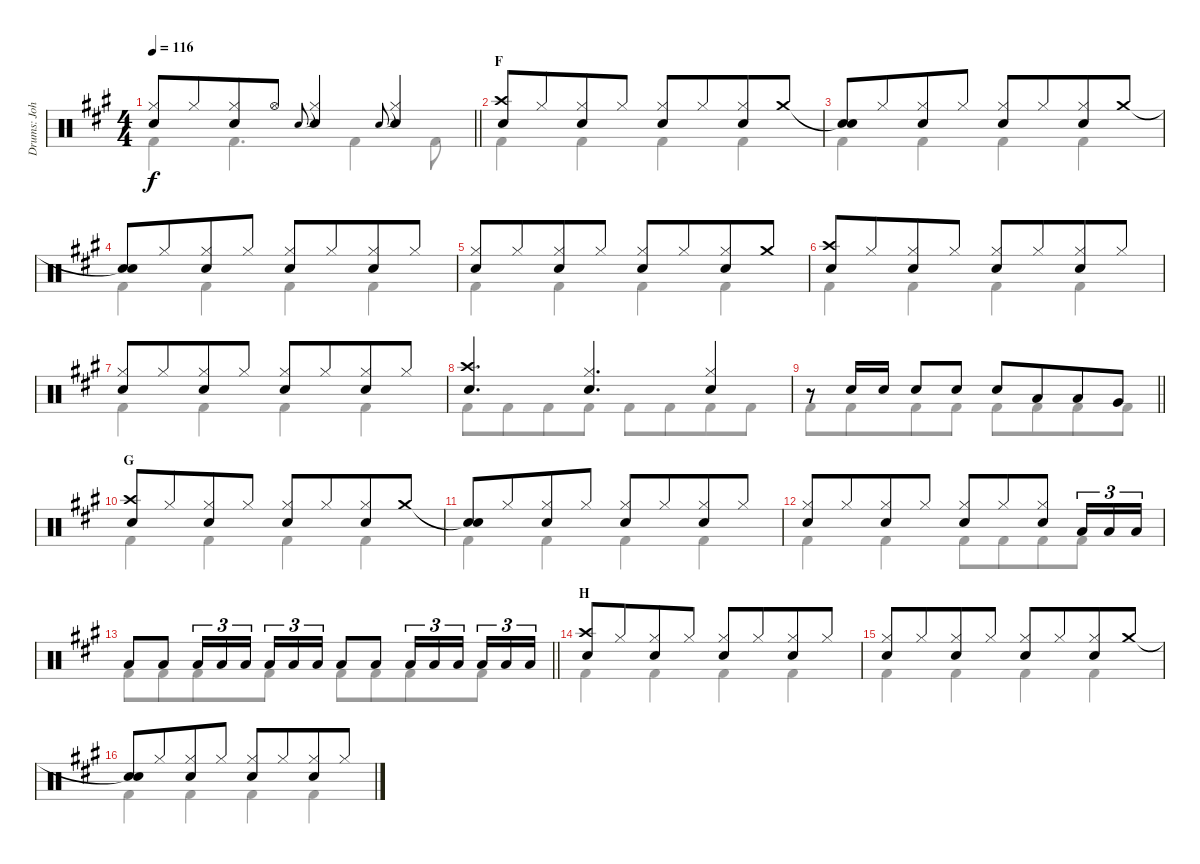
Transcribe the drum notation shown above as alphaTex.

\track ("Drums: John" "Drums: Joh") {instrument percussion}
\staff {score}
\articulation defaults
\voice
\ts (4 4)
\tempo 116
\clef neutral
\barLineRight lightlight
\ks a
("Hi-Hat (closed)" "Electric Snare (hit)").8{dy f} "Hi-Hat (closed)".8{beam merge} ("Hi-Hat (closed)" "Electric Snare (hit)").8 "Hi-Hat (open)".8 "Snare (hit) 2".8{gr onbeat} ("Hi-Hat (closed)"{t} "Electric Snare (hit)").4 "Snare (hit) 2".8{gr onbeat} ("Hi-Hat (closed)"{t} "Electric Snare (hit)").4 |
\section ("" "F")
("Crash high (hit)" "Electric Snare (hit)").8 "Hi-Hat (closed)".8{beam merge} ("Hi-Hat (closed)" "Electric Snare (hit)").8 "Hi-Hat (closed)".8 ("Hi-Hat (closed)" "Electric Snare (hit)").8 "Hi-Hat (closed)".8{beam merge} ("Hi-Hat (closed)" "Electric Snare (hit)").8 "Crash medium (hit)".8 |
("Snare (hit)"{t} "Electric Snare (hit)").8 "Hi-Hat (closed)".8{beam merge} ("Hi-Hat (closed)" "Electric Snare (hit)").8 "Hi-Hat (closed)".8 ("Hi-Hat (closed)" "Electric Snare (hit)").8 "Hi-Hat (closed)".8{beam merge} ("Hi-Hat (closed)" "Electric Snare (hit)").8 "Crash medium (hit)".8 |
("Snare (hit)"{t} "Electric Snare (hit)").8 "Hi-Hat (closed)".8{beam merge} ("Hi-Hat (closed)" "Electric Snare (hit)").8 "Hi-Hat (closed)".8 ("Hi-Hat (closed)" "Electric Snare (hit)").8 "Hi-Hat (closed)".8{beam merge} ("Hi-Hat (closed)" "Electric Snare (hit)").8 "Hi-Hat (closed)".8 |
("Hi-Hat (closed)" "Electric Snare (hit)").8 "Hi-Hat (closed)".8{beam merge} ("Hi-Hat (closed)" "Electric Snare (hit)").8 "Hi-Hat (closed)".8 ("Hi-Hat (closed)" "Electric Snare (hit)").8 "Hi-Hat (closed)".8{beam merge} ("Hi-Hat (closed)" "Electric Snare (hit)").8 "Crash medium (hit)".8 |
("Crash high (hit)" "Electric Snare (hit)").8 "Hi-Hat (closed)".8{beam merge} ("Hi-Hat (closed)" "Electric Snare (hit)").8 "Hi-Hat (closed)".8 ("Hi-Hat (closed)" "Electric Snare (hit)").8 "Hi-Hat (closed)".8{beam merge} ("Hi-Hat (closed)" "Electric Snare (hit)").8 "Hi-Hat (closed)".8 |
("Hi-Hat (closed)" "Electric Snare (hit)").8 "Hi-Hat (closed)".8{beam merge} ("Hi-Hat (closed)" "Electric Snare (hit)").8 "Hi-Hat (closed)".8 ("Hi-Hat (closed)" "Electric Snare (hit)").8 "Hi-Hat (closed)".8{beam merge} ("Hi-Hat (closed)" "Electric Snare (hit)").8 "Hi-Hat (closed)".8 |
("Crash high (hit)" "Electric Snare (hit)").4{d} ("Hi-Hat (closed)" "Electric Snare (hit)").4{d} ("Hi-Hat (closed)" "Electric Snare (hit)").4 |
\barLineRight lightlight
r.8 "Electric Snare (hit)".16 "Electric Snare (hit)".16 "Electric Snare (hit)".8 "Electric Snare (hit)".8 "Electric Snare (hit)".8 "Low Tom (hit)".8{beam merge} "Low Tom (hit)".8 "Very Low Tom (hit)".8 |
\section ("" "G")
("Crash high (hit)" "Electric Snare (hit)").8 "Hi-Hat (closed)".8{beam merge} ("Hi-Hat (closed)" "Electric Snare (hit)").8 "Hi-Hat (closed)".8 ("Hi-Hat (closed)" "Electric Snare (hit)").8 "Hi-Hat (closed)".8{beam merge} ("Hi-Hat (closed)" "Electric Snare (hit)").8 "Crash medium (hit)".8 |
("Snare (hit)"{t} "Electric Snare (hit)").8 "Hi-Hat (closed)".8{beam merge} ("Hi-Hat (closed)" "Electric Snare (hit)").8 "Hi-Hat (closed)".8 ("Hi-Hat (closed)" "Electric Snare (hit)").8 "Hi-Hat (closed)".8{beam merge} ("Hi-Hat (closed)" "Electric Snare (hit)").8 "Hi-Hat (closed)".8 |
("Hi-Hat (closed)" "Electric Snare (hit)").8 "Hi-Hat (closed)".8{beam merge} ("Hi-Hat (closed)" "Electric Snare (hit)").8 "Hi-Hat (closed)".8 ("Hi-Hat (closed)" "Electric Snare (hit)").8 "Hi-Hat (closed)".8{beam merge} ("Hi-Hat (closed)" "Electric Snare (hit)").8 "Low Floor Tom (hit)".16{tu (3 2)} "Low Floor Tom (hit)".16{tu (3 2)} "Low Floor Tom (hit)".16{tu (3 2)} |
\barLineRight lightlight "Low Floor Tom (hit)".8 "Low Floor Tom (hit)".8 "Low Floor Tom (hit)".16{tu (3 2)} "Low Floor Tom (hit)".16{tu (3 2)} "Low Floor Tom (hit)".16{tu (3 2) beam splitsecondary} "Low Floor Tom (hit)".16{tu (3 2)} "Low Floor Tom (hit)".16{tu (3 2)} "Low Floor Tom (hit)".16{tu (3 2)} "Low Floor Tom (hit)".8 "Low Floor Tom (hit)".8 "Low Floor Tom (hit)".16{tu (3 2)} "Low Floor Tom (hit)".16{tu (3 2)} "Low Floor Tom (hit)".16{tu (3 2) beam splitsecondary} "Low Floor Tom (hit)".16{tu (3 2)} "Low Floor Tom (hit)".16{tu (3 2)} "Low Floor Tom (hit)".16{tu (3 2)}
|
\section ("" "H")
("Crash high (hit)" "Electric Snare (hit)").8 "Hi-Hat (closed)".8{beam merge} ("Hi-Hat (closed)" "Electric Snare (hit)").8 "Hi-Hat (closed)".8 ("Hi-Hat (closed)" "Electric Snare (hit)").8 "Hi-Hat (closed)".8{beam merge} ("Hi-Hat (closed)" "Electric Snare (hit)").8 "Hi-Hat (closed)".8 |
("Hi-Hat (closed)" "Electric Snare (hit)").8 "Hi-Hat (closed)".8{beam merge} ("Hi-Hat (closed)" "Electric Snare (hit)").8 "Hi-Hat (closed)".8 ("Hi-Hat (closed)" "Electric Snare (hit)").8 "Hi-Hat (closed)".8{beam merge} ("Hi-Hat (closed)" "Electric Snare (hit)").8 "Crash medium (hit)".8 |
("Snare (hit)"{t} "Electric Snare (hit)").8 "Hi-Hat (closed)".8{beam merge} ("Hi-Hat (closed)" "Electric Snare (hit)").8 "Hi-Hat (closed)".8 ("Hi-Hat (closed)" "Electric Snare (hit)").8 "Hi-Hat (closed)".8{beam merge} ("Hi-Hat (closed)" "Electric Snare (hit)").8 "Hi-Hat (closed)".8
\voice
\clef neutral
\ottava regular
\simile none
\barLineRight lightlight
\ks a "Kick (hit) 2".4{dy f} "Kick (hit) 2".4{d} "Kick (hit) 2".4 "Kick (hit) 2".8
|
"Kick (hit) 2".4 "Kick (hit) 2".4 "Kick (hit) 2".4 "Kick (hit) 2".4 |
"Kick (hit) 2".4 "Kick (hit) 2".4 "Kick (hit) 2".4 "Kick (hit) 2".4 |
"Kick (hit) 2".4 "Kick (hit) 2".4 "Kick (hit) 2".4 "Kick (hit) 2".4 |
"Kick (hit) 2".4 "Kick (hit) 2".4 "Kick (hit) 2".4 "Kick (hit) 2".4 |
"Kick (hit) 2".4 "Kick (hit) 2".4 "Kick (hit) 2".4 "Kick (hit) 2".4 |
"Kick (hit) 2".4 "Kick (hit) 2".4 "Kick (hit) 2".4 "Kick (hit) 2".4 |
"Kick (hit) 2".8 "Kick (hit) 2".8{beam merge} "Kick (hit) 2".8 "Kick (hit) 2".8 "Kick (hit) 2".8 "Kick (hit) 2".8{beam merge} "Kick (hit) 2".8 "Kick (hit) 2".8 |
\barLineRight lightlight "Kick (hit) 2".8 "Kick (hit) 2".8{beam merge} "Kick (hit) 2".8 "Kick (hit) 2".8 "Kick (hit) 2".8 "Kick (hit) 2".8{beam merge} "Kick (hit) 2".8 "Kick (hit) 2".8
|
"Kick (hit) 2".4 "Kick (hit) 2".4 "Kick (hit) 2".4 "Kick (hit) 2".4 |
"Kick (hit) 2".4 "Kick (hit) 2".4 "Kick (hit) 2".4 "Kick (hit) 2".4 |
"Kick (hit) 2".4 "Kick (hit) 2".4 "Kick (hit) 2".8 "Kick (hit) 2".8{beam merge} "Kick (hit) 2".8 "Kick (hit) 2".8 |
\barLineRight lightlight "Kick (hit) 2".8 "Kick (hit) 2".8{beam merge} "Kick (hit) 2".8 "Kick (hit) 2".8 "Kick (hit) 2".8 "Kick (hit) 2".8{beam merge} "Kick (hit) 2".8 "Kick (hit) 2".8
|
"Kick (hit) 2".4 "Kick (hit) 2".4 "Kick (hit) 2".4 "Kick (hit) 2".4 |
"Kick (hit) 2".4 "Kick (hit) 2".4 "Kick (hit) 2".4 "Kick (hit) 2".4 |
"Kick (hit) 2".4 "Kick (hit) 2".4 "Kick (hit) 2".4 "Kick (hit) 2".4
